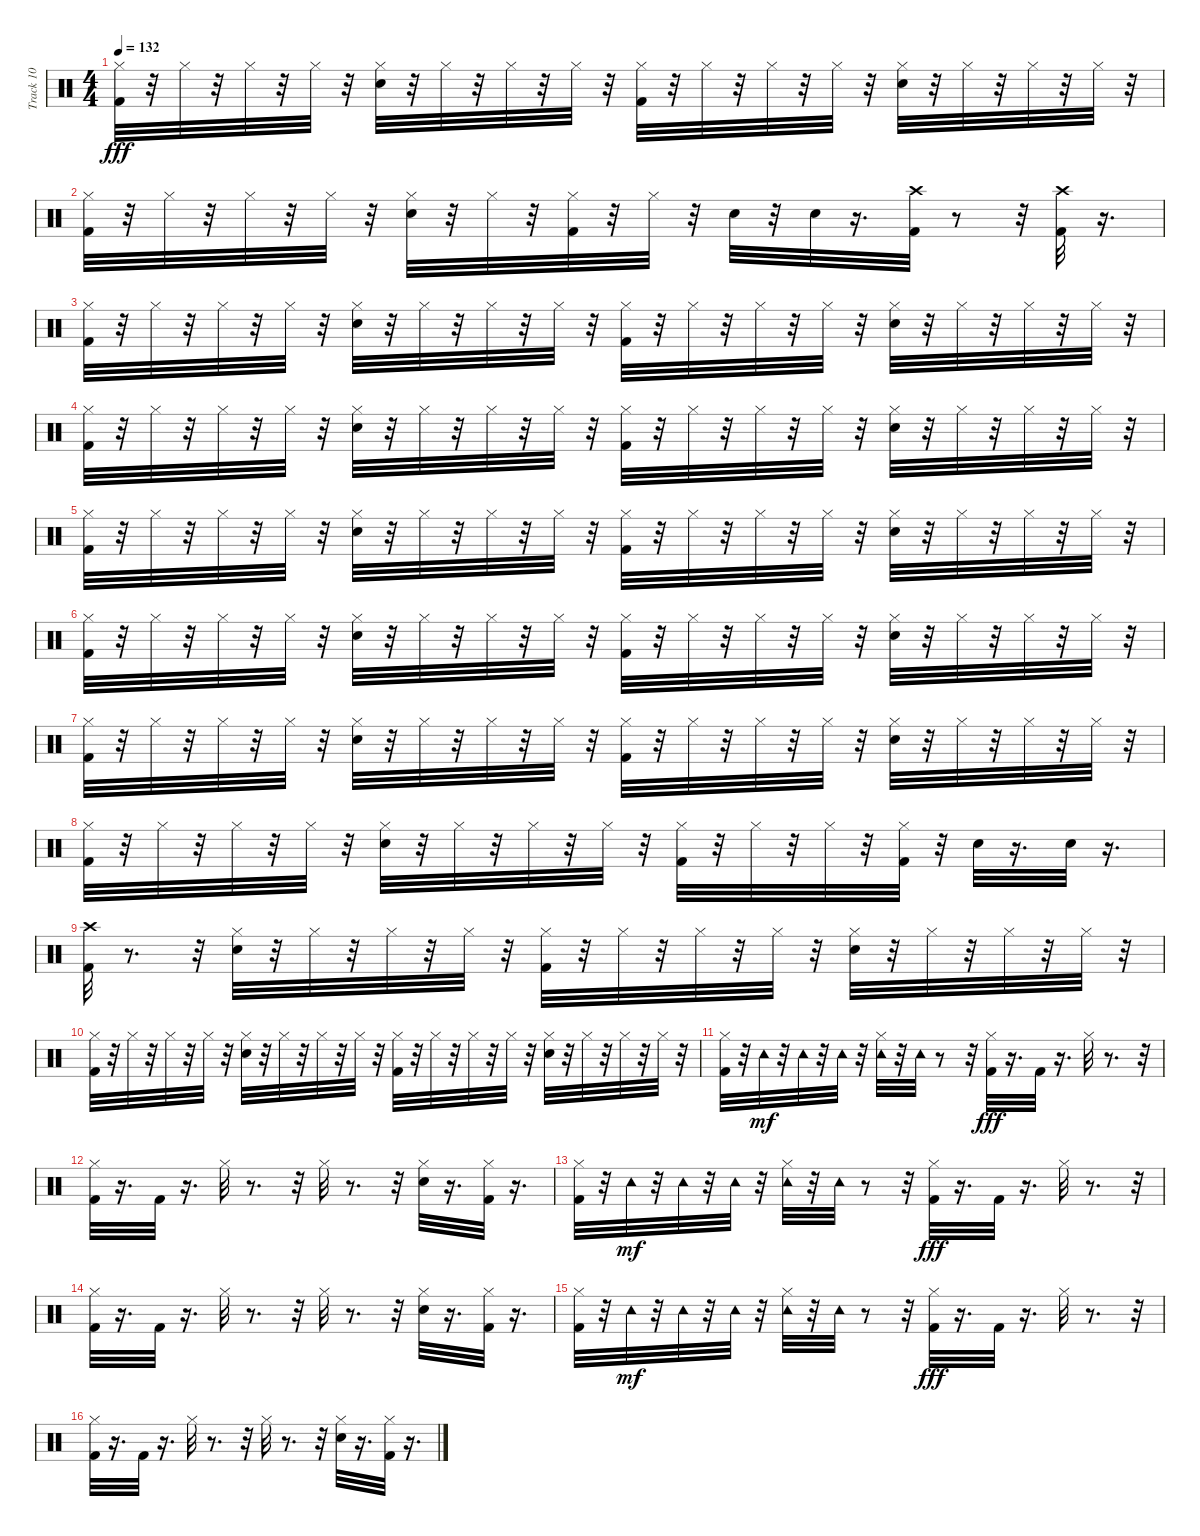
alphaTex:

\track ("Track 10" "Track 10") {instrument percussion}
\staff {score}
\articulation defaults
\ts (4 4)
\tempo 132
\clef neutral
\ks c
("Kick (hit) 2" "Hi-Hat (closed)").32{dy fff} r.32 "Hi-Hat (closed)".32 r.32 "Hi-Hat (closed)".32 r.32 "Hi-Hat (closed)".32 r.32 ("Snare (hit) 2" "Hi-Hat (closed)").32 r.32 "Hi-Hat (closed)".32 r.32 "Hi-Hat (closed)".32 r.32 "Hi-Hat (closed)".32 r.32 ("Kick (hit) 2" "Hi-Hat (closed)").32 r.32 "Hi-Hat (closed)".32 r.32 "Hi-Hat (closed)".32 r.32 "Hi-Hat (closed)".32 r.32 ("Snare (hit) 2" "Hi-Hat (closed)").32 r.32 "Hi-Hat (closed)".32 r.32 "Hi-Hat (closed)".32 r.32 "Hi-Hat (closed)".32 r.32 |
("Kick (hit) 2" "Hi-Hat (closed)").32 r.32 "Hi-Hat (closed)".32 r.32 "Hi-Hat (closed)".32 r.32 "Hi-Hat (closed)".32 r.32 ("Snare (hit) 2" "Hi-Hat (closed)").32 r.32 "Hi-Hat (closed)".32 r.32 ("Kick (hit) 2" "Hi-Hat (closed)").32 r.32 "Hi-Hat (closed)".32 r.32 "Snare (hit) 2".32 r.32 "Snare (hit) 2".32 r.16{d} ("Kick (hit) 2" "Crash high (hit)").32 r.8 r.32 ("Kick (hit) 2" "Crash high (hit)").32 r.16{d} |
("Kick (hit) 2" "Hi-Hat (closed)").32 r.32 "Hi-Hat (closed)".32 r.32 "Hi-Hat (closed)".32 r.32 "Hi-Hat (closed)".32 r.32 ("Snare (hit) 2" "Hi-Hat (closed)").32 r.32 "Hi-Hat (closed)".32 r.32 "Hi-Hat (closed)".32 r.32 "Hi-Hat (closed)".32 r.32 ("Kick (hit) 2" "Hi-Hat (closed)").32 r.32 "Hi-Hat (closed)".32 r.32 "Hi-Hat (closed)".32 r.32 "Hi-Hat (closed)".32 r.32 ("Snare (hit) 2" "Hi-Hat (closed)").32 r.32 "Hi-Hat (closed)".32 r.32 "Hi-Hat (closed)".32 r.32 "Hi-Hat (closed)".32 r.32 |
("Kick (hit) 2" "Hi-Hat (closed)").32 r.32 "Hi-Hat (closed)".32 r.32 "Hi-Hat (closed)".32 r.32 "Hi-Hat (closed)".32 r.32 ("Snare (hit) 2" "Hi-Hat (closed)").32 r.32 "Hi-Hat (closed)".32 r.32 "Hi-Hat (closed)".32 r.32 "Hi-Hat (closed)".32 r.32 ("Kick (hit) 2" "Hi-Hat (closed)").32 r.32 "Hi-Hat (closed)".32 r.32 "Hi-Hat (closed)".32 r.32 "Hi-Hat (closed)".32 r.32 ("Snare (hit) 2" "Hi-Hat (closed)").32 r.32 "Hi-Hat (closed)".32 r.32 "Hi-Hat (closed)".32 r.32 "Hi-Hat (closed)".32 r.32 |
("Kick (hit) 2" "Hi-Hat (closed)").32 r.32 "Hi-Hat (closed)".32 r.32 "Hi-Hat (closed)".32 r.32 "Hi-Hat (closed)".32 r.32 ("Snare (hit) 2" "Hi-Hat (closed)").32 r.32 "Hi-Hat (closed)".32 r.32 "Hi-Hat (closed)".32 r.32 "Hi-Hat (closed)".32 r.32 ("Kick (hit) 2" "Hi-Hat (closed)").32 r.32 "Hi-Hat (closed)".32 r.32 "Hi-Hat (closed)".32 r.32 "Hi-Hat (closed)".32 r.32 ("Snare (hit) 2" "Hi-Hat (closed)").32 r.32 "Hi-Hat (closed)".32 r.32 "Hi-Hat (closed)".32 r.32 "Hi-Hat (closed)".32 r.32 |
("Kick (hit) 2" "Hi-Hat (closed)").32 r.32 "Hi-Hat (closed)".32 r.32 "Hi-Hat (closed)".32 r.32 "Hi-Hat (closed)".32 r.32 ("Snare (hit) 2" "Hi-Hat (closed)").32 r.32 "Hi-Hat (closed)".32 r.32 "Hi-Hat (closed)".32 r.32 "Hi-Hat (closed)".32 r.32 ("Kick (hit) 2" "Hi-Hat (closed)").32 r.32 "Hi-Hat (closed)".32 r.32 "Hi-Hat (closed)".32 r.32 "Hi-Hat (closed)".32 r.32 ("Snare (hit) 2" "Hi-Hat (closed)").32 r.32 "Hi-Hat (closed)".32 r.32 "Hi-Hat (closed)".32 r.32 "Hi-Hat (closed)".32 r.32 |
("Kick (hit) 2" "Hi-Hat (closed)").32 r.32 "Hi-Hat (closed)".32 r.32 "Hi-Hat (closed)".32 r.32 "Hi-Hat (closed)".32 r.32 ("Snare (hit) 2" "Hi-Hat (closed)").32 r.32 "Hi-Hat (closed)".32 r.32 "Hi-Hat (closed)".32 r.32 "Hi-Hat (closed)".32 r.32 ("Kick (hit) 2" "Hi-Hat (closed)").32 r.32 "Hi-Hat (closed)".32 r.32 "Hi-Hat (closed)".32 r.32 "Hi-Hat (closed)".32 r.32 ("Snare (hit) 2" "Hi-Hat (closed)").32 r.32 "Hi-Hat (closed)".32 r.32 "Hi-Hat (closed)".32 r.32 "Hi-Hat (closed)".32 r.32 |
("Kick (hit) 2" "Hi-Hat (closed)").32 r.32 "Hi-Hat (closed)".32 r.32 "Hi-Hat (closed)".32 r.32 "Hi-Hat (closed)".32 r.32 ("Snare (hit) 2" "Hi-Hat (closed)").32 r.32 "Hi-Hat (closed)".32 r.32 "Hi-Hat (closed)".32 r.32 "Hi-Hat (closed)".32 r.32 ("Kick (hit) 2" "Hi-Hat (closed)").32 r.32 "Hi-Hat (closed)".32 r.32 "Hi-Hat (closed)".32 r.32 ("Kick (hit) 2" "Hi-Hat (closed)").32 r.32 "Snare (hit) 2".32 r.16{d} "Snare (hit) 2".32 r.16{d} |
("Crash high (hit)" "Kick (hit) 2").32 r.8{d} r.32 ("Snare (hit) 2" "Hi-Hat (closed)").32 r.32 "Hi-Hat (closed)".32 r.32 "Hi-Hat (closed)".32 r.32 "Hi-Hat (closed)".32 r.32 ("Kick (hit) 2" "Hi-Hat (closed)").32 r.32 "Hi-Hat (closed)".32 r.32 "Hi-Hat (closed)".32 r.32 "Hi-Hat (closed)".32 r.32 ("Snare (hit) 2" "Hi-Hat (closed)").32 r.32 "Hi-Hat (closed)".32 r.32 "Hi-Hat (closed)".32 r.32 "Hi-Hat (closed)".32 r.32 |
("Kick (hit) 2" "Hi-Hat (closed)").32 r.32 "Hi-Hat (closed)".32 r.32 "Hi-Hat (closed)".32 r.32 "Hi-Hat (closed)".32 r.32 ("Snare (hit) 2" "Hi-Hat (closed)").32 r.32 "Hi-Hat (closed)".32 r.32 "Hi-Hat (closed)".32 r.32 "Hi-Hat (closed)".32 r.32 ("Kick (hit) 2" "Hi-Hat (closed)").32 r.32 "Hi-Hat (closed)".32 r.32 "Hi-Hat (closed)".32 r.32 "Hi-Hat (closed)".32 r.32 ("Snare (hit) 2" "Hi-Hat (closed)").32 r.32 "Hi-Hat (closed)".32 r.32 "Hi-Hat (closed)".32 r.32 "Hi-Hat (closed)".32 r.32 |
("Hi-Hat (closed)" "Kick (hit) 2").32 r.32 "Tambourine (hit)".32{dy mf} r.32 "Tambourine (hit)".32 r.32 "Tambourine (hit)".32 r.32 ("Hi-Hat (closed)" "Tambourine (hit)").32 r.32 "Tambourine (hit)".32 r.8 r.32 ("Hi-Hat (closed)" "Kick (hit) 2").32{dy fff} r.16{d} "Kick (hit) 2".32 r.16{d} "Hi-Hat (closed)".32 r.8{d} r.32 |
("Hi-Hat (closed)" "Kick (hit) 2").32 r.16{d} "Kick (hit) 2".32 r.16{d} "Hi-Hat (closed)".32 r.8{d} r.32 "Hi-Hat (closed)".32 r.8{d} r.32 ("Snare (hit) 2" "Hi-Hat (closed)").32 r.16{d} ("Hi-Hat (closed)" "Kick (hit) 2").32 r.16{d} |
("Hi-Hat (closed)" "Kick (hit) 2").32 r.32 "Tambourine (hit)".32{dy mf} r.32 "Tambourine (hit)".32 r.32 "Tambourine (hit)".32 r.32 ("Hi-Hat (closed)" "Tambourine (hit)").32 r.32 "Tambourine (hit)".32 r.8 r.32 ("Hi-Hat (closed)" "Kick (hit) 2").32{dy fff} r.16{d} "Kick (hit) 2".32 r.16{d} "Hi-Hat (closed)".32 r.8{d} r.32 |
("Hi-Hat (closed)" "Kick (hit) 2").32 r.16{d} "Kick (hit) 2".32 r.16{d} "Hi-Hat (closed)".32 r.8{d} r.32 "Hi-Hat (closed)".32 r.8{d} r.32 ("Snare (hit) 2" "Hi-Hat (closed)").32 r.16{d} ("Hi-Hat (closed)" "Kick (hit) 2").32 r.16{d} |
("Hi-Hat (closed)" "Kick (hit) 2").32 r.32 "Tambourine (hit)".32{dy mf} r.32 "Tambourine (hit)".32 r.32 "Tambourine (hit)".32 r.32 ("Hi-Hat (closed)" "Tambourine (hit)").32 r.32 "Tambourine (hit)".32 r.8 r.32 ("Hi-Hat (closed)" "Kick (hit) 2").32{dy fff} r.16{d} "Kick (hit) 2".32 r.16{d} "Hi-Hat (closed)".32 r.8{d} r.32 |
("Hi-Hat (closed)" "Kick (hit) 2").32 r.16{d} "Kick (hit) 2".32 r.16{d} "Hi-Hat (closed)".32 r.8{d} r.32 "Hi-Hat (closed)".32 r.8{d} r.32 ("Snare (hit) 2" "Hi-Hat (closed)").32 r.16{d} ("Hi-Hat (closed)" "Kick (hit) 2").32 r.16{d}
